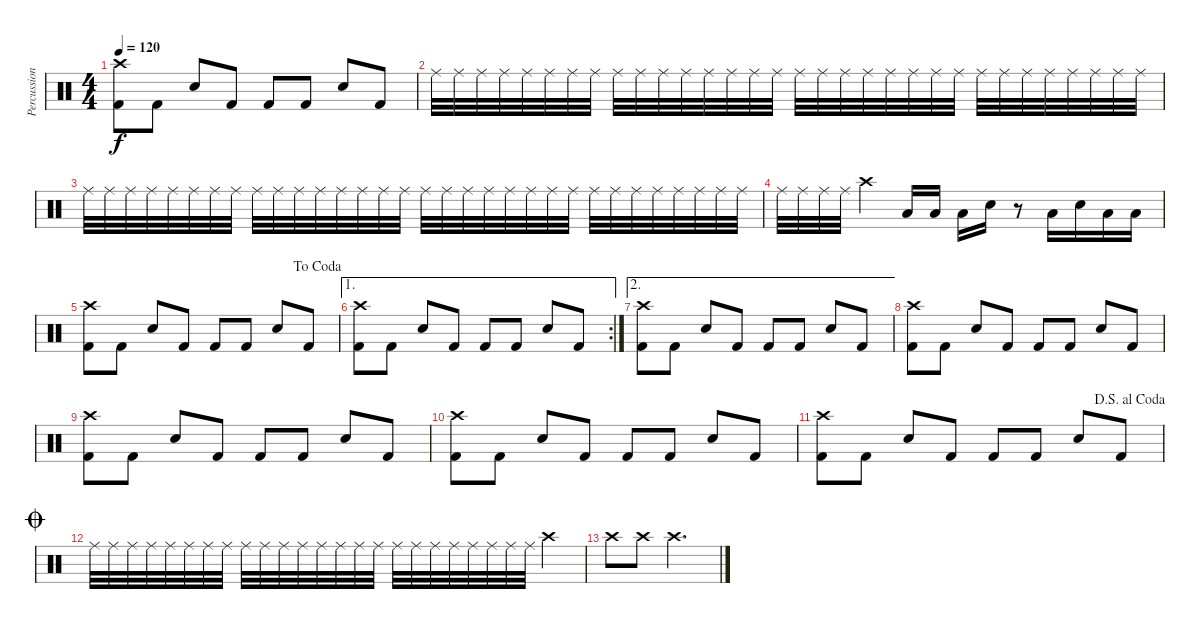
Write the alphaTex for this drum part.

\track ("Percussion" "Percussion") {instrument percussion}
\staff {score}
\articulation defaults
\ts (4 4)
\tempo 120
\clef neutral
\ks c
("Kick (hit) 2" "Crash high (hit)").8{dy f} "Kick (hit) 2".8 "Snare (hit) 2".8 "Kick (hit) 2".8 "Kick (hit) 2".8 "Kick (hit) 2".8 "Snare (hit) 2".8 "Kick (hit) 2".8 |
"Ride (middle)".32 "Ride (middle)".32 "Ride (middle)".32 "Ride (middle)".32 "Ride (middle)".32 "Ride (middle)".32 "Ride (middle)".32 "Ride (middle)".32 "Ride (middle)".32 "Ride (middle)".32 "Ride (middle)".32 "Ride (middle)".32 "Ride (middle)".32 "Ride (middle)".32 "Ride (middle)".32 "Ride (middle)".32 "Ride (middle)".32 "Ride (middle)".32 "Ride (middle)".32 "Ride (middle)".32 "Ride (middle)".32 "Ride (middle)".32 "Ride (middle)".32 "Ride (middle)".32 "Ride (middle)".32 "Ride (middle)".32 "Ride (middle)".32 "Ride (middle)".32 "Ride (middle)".32 "Ride (middle)".32 "Ride (middle)".32 "Ride (middle)".32 |
"Ride (middle)".32 "Ride (middle)".32 "Ride (middle)".32 "Ride (middle)".32 "Ride (middle)".32 "Ride (middle)".32 "Ride (middle)".32 "Ride (middle)".32 "Ride (middle)".32 "Ride (middle)".32 "Ride (middle)".32 "Ride (middle)".32 "Ride (middle)".32 "Ride (middle)".32 "Ride (middle)".32 "Ride (middle)".32 "Ride (middle)".32 "Ride (middle)".32 "Ride (middle)".32 "Ride (middle)".32 "Ride (middle)".32 "Ride (middle)".32 "Ride (middle)".32 "Ride (middle)".32 "Ride (middle)".32 "Ride (middle)".32 "Ride (middle)".32 "Ride (middle)".32 "Ride (middle)".32 "Ride (middle)".32 "Ride (middle)".32 "Ride (middle)".32 |
"Ride (middle)".32 "Ride (middle)".32 "Ride (middle)".32 "Ride (middle)".32 "Crash high (hit)".4 "Low Floor Tom (hit)".16 "Low Floor Tom (hit)".16 "Low Floor Tom (hit)".16 "Snare (hit) 2".16 r.8 "Low Floor Tom (hit)".16 "Snare (hit) 2".16 "Low Floor Tom (hit)".16 "Low Floor Tom (hit)".16 |
\jump dacoda
("Kick (hit) 2" "Crash high (hit)").8 "Kick (hit) 2".8 "Snare (hit) 2".8 "Kick (hit) 2".8 "Kick (hit) 2".8 "Kick (hit) 2".8 "Snare (hit) 2".8 "Kick (hit) 2".8 |
\ae 1
\rc 2
("Kick (hit) 2" "Crash high (hit)").8 "Kick (hit) 2".8 "Snare (hit) 2".8 "Kick (hit) 2".8 "Kick (hit) 2".8 "Kick (hit) 2".8 "Snare (hit) 2".8 "Kick (hit) 2".8 |
\ae 2
("Kick (hit) 2" "Crash high (hit)").8 "Kick (hit) 2".8 "Snare (hit) 2".8 "Kick (hit) 2".8 "Kick (hit) 2".8 "Kick (hit) 2".8 "Snare (hit) 2".8 "Kick (hit) 2".8 |
("Kick (hit) 2" "Crash high (hit)").8 "Kick (hit) 2".8 "Snare (hit) 2".8 "Kick (hit) 2".8 "Kick (hit) 2".8 "Kick (hit) 2".8 "Snare (hit) 2".8 "Kick (hit) 2".8 |
("Kick (hit) 2" "Crash high (hit)").8 "Kick (hit) 2".8 "Snare (hit) 2".8 "Kick (hit) 2".8 "Kick (hit) 2".8 "Kick (hit) 2".8 "Snare (hit) 2".8 "Kick (hit) 2".8 |
("Kick (hit) 2" "Crash high (hit)").8 "Kick (hit) 2".8 "Snare (hit) 2".8 "Kick (hit) 2".8 "Kick (hit) 2".8 "Kick (hit) 2".8 "Snare (hit) 2".8 "Kick (hit) 2".8 |
\jump dalsegnoalcoda
("Kick (hit) 2" "Crash high (hit)").8 "Kick (hit) 2".8 "Snare (hit) 2".8 "Kick (hit) 2".8 "Kick (hit) 2".8 "Kick (hit) 2".8 "Snare (hit) 2".8 "Kick (hit) 2".8 |
\jump coda "Ride (middle)".32 "Ride (middle)".32 "Ride (middle)".32 "Ride (middle)".32 "Ride (middle)".32 "Ride (middle)".32 "Ride (middle)".32 "Ride (middle)".32 "Ride (middle)".32 "Ride (middle)".32 "Ride (middle)".32 "Ride (middle)".32 "Ride (middle)".32 "Ride (middle)".32 "Ride (middle)".32 "Ride (middle)".32 "Ride (middle)".32 "Ride (middle)".32 "Ride (middle)".32 "Ride (middle)".32 "Ride (middle)".32 "Ride (middle)".32 "Ride (middle)".32 "Ride (middle)".32 "Crash high (hit)".4
|
"Crash high (hit)".8 "Crash high (hit)".8 "Crash high (hit)".2{d}
